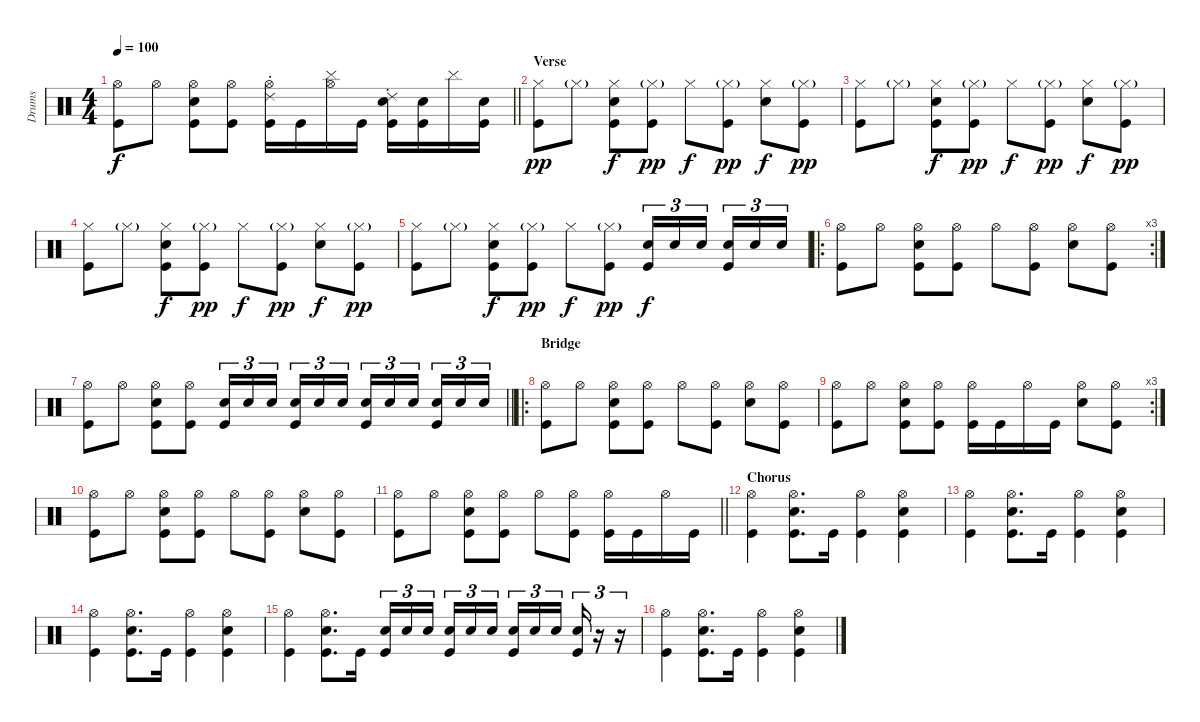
\track ("Drums" "Drums") {instrument percussion}
\staff {score}
\articulation defaults
\ts (4 4)
\tempo 100
\clef neutral
\barLineRight lightlight
\ks c
("Hi-Hat (open)" "Kick (hit)").8{dy f} "Hi-Hat (open)".8 ("Snare (hit) 2" "Hi-Hat (open)" "Kick (hit)").8 ("Hi-Hat (open)" "Kick (hit)").8 ("Ride (choke) 2" "Hi-Hat (open)" "Kick (hit)").16 "Kick (hit)".16 ("Cymbal (hit)" "Hi-Hat (open)").16 "Kick (hit)".16 ("Ride (choke) 2" "Snare (hit) 2" "Kick (hit)").16 ("Snare (hit) 2" "Kick (hit)").16 "Cymbal (hit)".16 ("Snare (hit) 2" "Kick (hit)").16 |
\section ("" "Verse")
("Hi-Hat (closed)" "Kick (hit)").8{dy pp} "Hi-Hat (closed)"{g}.8 ("Snare (hit) 2" "Hi-Hat (closed)" "Kick (hit)").8{dy f} ("Hi-Hat (closed)"{g} "Kick (hit)").8{dy pp} "Hi-Hat (closed)".8{dy f} ("Hi-Hat (closed)"{g} "Kick (hit)").8{dy pp} ("Snare (hit) 2" "Hi-Hat (closed)").8{dy f} ("Hi-Hat (closed)"{g} "Kick (hit)").8{dy pp} |
("Hi-Hat (closed)" "Kick (hit)").8 "Hi-Hat (closed)"{g}.8 ("Snare (hit) 2" "Hi-Hat (closed)" "Kick (hit)").8{dy f} ("Hi-Hat (closed)"{g} "Kick (hit)").8{dy pp} "Hi-Hat (closed)".8{dy f} ("Hi-Hat (closed)"{g} "Kick (hit)").8{dy pp} ("Snare (hit) 2" "Hi-Hat (closed)").8{dy f} ("Hi-Hat (closed)"{g} "Kick (hit)").8{dy pp} |
("Hi-Hat (closed)" "Kick (hit)").8 "Hi-Hat (closed)"{g}.8 ("Snare (hit) 2" "Hi-Hat (closed)" "Kick (hit)").8{dy f} ("Hi-Hat (closed)"{g} "Kick (hit)").8{dy pp} "Hi-Hat (closed)".8{dy f} ("Hi-Hat (closed)"{g} "Kick (hit)").8{dy pp} ("Snare (hit) 2" "Hi-Hat (closed)").8{dy f} ("Hi-Hat (closed)"{g} "Kick (hit)").8{dy pp} |
("Hi-Hat (closed)" "Kick (hit)").8 "Hi-Hat (closed)"{g}.8 ("Snare (hit) 2" "Hi-Hat (closed)" "Kick (hit)").8{dy f} ("Hi-Hat (closed)"{g} "Kick (hit)").8{dy pp} "Hi-Hat (closed)".8{dy f} ("Hi-Hat (closed)"{g} "Kick (hit)").8{dy pp} ("Snare (hit) 2" "Kick (hit)").16{tu (3 2) dy f} "Snare (hit) 2".16{tu (3 2)} "Snare (hit) 2".16{tu (3 2) beam splitsecondary} ("Snare (hit) 2" "Kick (hit)").16{tu (3 2)} "Snare (hit) 2".16{tu (3 2)} "Snare (hit) 2".16{tu (3 2)} |
\ro
\rc 3
("Hi-Hat (open)" "Kick (hit)").8 "Hi-Hat (open)".8 ("Snare (hit) 2" "Hi-Hat (open)" "Kick (hit)").8 ("Hi-Hat (open)" "Kick (hit)").8 "Hi-Hat (open)".8 ("Hi-Hat (open)" "Kick (hit)").8 ("Snare (hit) 2" "Hi-Hat (open)").8 ("Hi-Hat (open)" "Kick (hit)").8 |
\barLineRight lightlight
("Hi-Hat (open)" "Kick (hit)").8 "Hi-Hat (open)".8 ("Snare (hit) 2" "Hi-Hat (open)" "Kick (hit)").8 ("Hi-Hat (open)" "Kick (hit)").8 ("Snare (hit) 2" "Kick (hit)").16{tu (3 2)} "Snare (hit) 2".16{tu (3 2)} "Snare (hit) 2".16{tu (3 2) beam splitsecondary} ("Snare (hit) 2" "Kick (hit)").16{tu (3 2)} "Snare (hit) 2".16{tu (3 2)} "Snare (hit) 2".16{tu (3 2)} ("Snare (hit) 2" "Kick (hit)").16{tu (3 2)} "Snare (hit) 2".16{tu (3 2)} "Snare (hit) 2".16{tu (3 2) beam splitsecondary} ("Snare (hit) 2" "Kick (hit)").16{tu (3 2)} "Snare (hit) 2".16{tu (3 2)} "Snare (hit) 2".16{tu (3 2)} |
\ro
\section ("" "Bridge")
("Hi-Hat (open)" "Kick (hit)").8 "Hi-Hat (open)".8 ("Snare (hit) 2" "Hi-Hat (open)" "Kick (hit)").8 ("Hi-Hat (open)" "Kick (hit)").8 "Hi-Hat (open)".8 ("Hi-Hat (open)" "Kick (hit)").8 ("Snare (hit) 2" "Hi-Hat (open)").8 ("Hi-Hat (open)" "Kick (hit)").8 |
\rc 3
("Hi-Hat (open)" "Kick (hit)").8 "Hi-Hat (open)".8 ("Snare (hit) 2" "Hi-Hat (open)" "Kick (hit)").8 ("Hi-Hat (open)" "Kick (hit)").8 ("Hi-Hat (open)" "Kick (hit)").16 "Kick (hit)".16 "Hi-Hat (open)".16 "Kick (hit)".16 ("Snare (hit) 2" "Hi-Hat (open)").8 ("Hi-Hat (open)" "Kick (hit)").8 |
("Hi-Hat (open)" "Kick (hit)").8 "Hi-Hat (open)".8 ("Snare (hit) 2" "Hi-Hat (open)" "Kick (hit)").8 ("Hi-Hat (open)" "Kick (hit)").8 "Hi-Hat (open)".8 ("Hi-Hat (open)" "Kick (hit)").8 ("Snare (hit) 2" "Hi-Hat (open)").8 ("Hi-Hat (open)" "Kick (hit)").8 |
\barLineRight lightlight
("Hi-Hat (open)" "Kick (hit)").8 "Hi-Hat (open)".8 ("Snare (hit) 2" "Hi-Hat (open)" "Kick (hit)").8 ("Hi-Hat (open)" "Kick (hit)").8 "Hi-Hat (open)".8 ("Hi-Hat (open)" "Kick (hit)").8 ("Hi-Hat (open)" "Kick (hit)").16 "Kick (hit)".16 "Hi-Hat (open)".16 "Kick (hit)".16 |
\section ("" "Chorus")
("Hi-Hat (open)" "Kick (hit)").4 ("Snare (hit) 2" "Hi-Hat (open)" "Kick (hit)").8{d} "Kick (hit)".16 ("Hi-Hat (open)" "Kick (hit)").4 ("Snare (hit) 2" "Hi-Hat (open)" "Kick (hit)").4 |
("Hi-Hat (open)" "Kick (hit)").4 ("Snare (hit) 2" "Hi-Hat (open)" "Kick (hit)").8{d} "Kick (hit)".16 ("Hi-Hat (open)" "Kick (hit)").4 ("Snare (hit) 2" "Hi-Hat (open)" "Kick (hit)").4 |
("Hi-Hat (open)" "Kick (hit)").4 ("Snare (hit) 2" "Hi-Hat (open)" "Kick (hit)").8{d} "Kick (hit)".16 ("Hi-Hat (open)" "Kick (hit)").4 ("Snare (hit) 2" "Hi-Hat (open)" "Kick (hit)").4 |
("Hi-Hat (open)" "Kick (hit)").4 ("Snare (hit) 2" "Hi-Hat (open)" "Kick (hit)").8{d} "Kick (hit)".16 ("Snare (hit) 2" "Kick (hit)").16{tu (3 2)} "Snare (hit) 2".16{tu (3 2)} "Snare (hit) 2".16{tu (3 2) beam splitsecondary} ("Snare (hit) 2" "Kick (hit)").16{tu (3 2)} "Snare (hit) 2".16{tu (3 2)} "Snare (hit) 2".16{tu (3 2)} ("Snare (hit) 2" "Kick (hit)").16{tu (3 2)} "Snare (hit) 2".16{tu (3 2)} "Snare (hit) 2".16{tu (3 2) beam splitsecondary} ("Snare (hit) 2" "Kick (hit)").16{tu (3 2)} r.16{tu (3 2)} r.16{tu (3 2)} |
("Hi-Hat (open)" "Kick (hit)").4 ("Snare (hit) 2" "Hi-Hat (open)" "Kick (hit)").8{d} "Kick (hit)".16 ("Hi-Hat (open)" "Kick (hit)").4 ("Snare (hit) 2" "Hi-Hat (open)" "Kick (hit)").4
